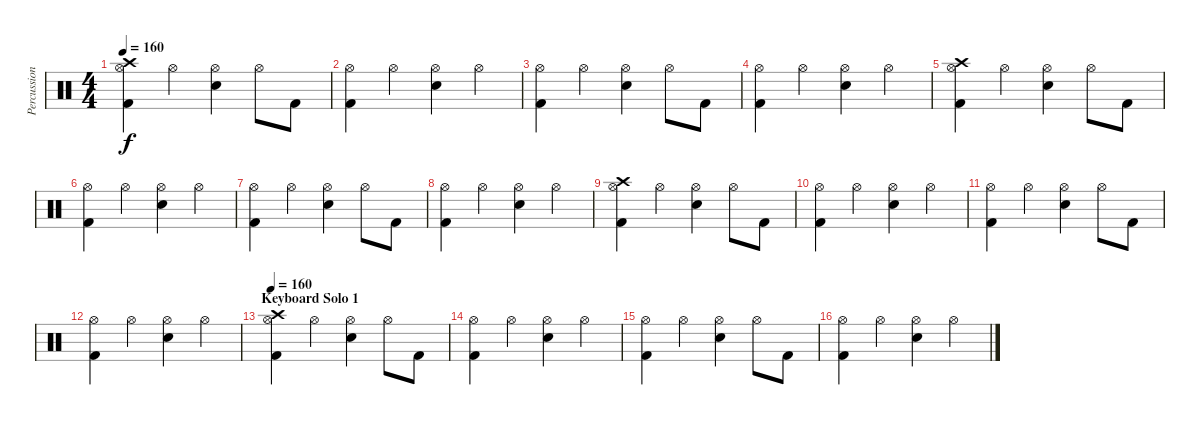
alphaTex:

\track ("Percussions" "Percussion") {instrument percussion}
\staff {score}
\articulation defaults
\ts (4 4)
\tempo 160
\clef neutral
\ks c
("Crash high (hit)" "Hi-Hat (open)" "Kick (hit) 2").4{dy f} "Hi-Hat (open)".4 ("Hi-Hat (open)" "Electric Snare (hit)").4 "Hi-Hat (open)".8 "Kick (hit) 2".8 |
("Hi-Hat (open)" "Kick (hit) 2").4 "Hi-Hat (open)".4 ("Hi-Hat (open)" "Electric Snare (hit)").4 "Hi-Hat (open)".4 |
("Hi-Hat (open)" "Kick (hit) 2").4 "Hi-Hat (open)".4 ("Hi-Hat (open)" "Electric Snare (hit)").4 "Hi-Hat (open)".8 "Kick (hit) 2".8 |
("Hi-Hat (open)" "Kick (hit) 2").4 "Hi-Hat (open)".4 ("Hi-Hat (open)" "Electric Snare (hit)").4 "Hi-Hat (open)".4 |
("Crash high (hit)" "Hi-Hat (open)" "Kick (hit) 2").4 "Hi-Hat (open)".4 ("Hi-Hat (open)" "Electric Snare (hit)").4 "Hi-Hat (open)".8 "Kick (hit) 2".8 |
("Hi-Hat (open)" "Kick (hit) 2").4 "Hi-Hat (open)".4 ("Hi-Hat (open)" "Electric Snare (hit)").4 "Hi-Hat (open)".4 |
("Hi-Hat (open)" "Kick (hit) 2").4 "Hi-Hat (open)".4 ("Hi-Hat (open)" "Electric Snare (hit)").4 "Hi-Hat (open)".8 "Kick (hit) 2".8 |
("Hi-Hat (open)" "Kick (hit) 2").4 "Hi-Hat (open)".4 ("Hi-Hat (open)" "Electric Snare (hit)").4 "Hi-Hat (open)".4 |
("Crash high (hit)" "Hi-Hat (open)" "Kick (hit) 2").4 "Hi-Hat (open)".4 ("Hi-Hat (open)" "Electric Snare (hit)").4 "Hi-Hat (open)".8 "Kick (hit) 2".8 |
("Hi-Hat (open)" "Kick (hit) 2").4 "Hi-Hat (open)".4 ("Hi-Hat (open)" "Electric Snare (hit)").4 "Hi-Hat (open)".4 |
("Hi-Hat (open)" "Kick (hit) 2").4 "Hi-Hat (open)".4 ("Hi-Hat (open)" "Electric Snare (hit)").4 "Hi-Hat (open)".8 "Kick (hit) 2".8 |
("Hi-Hat (open)" "Kick (hit) 2").4 "Hi-Hat (open)".4 ("Hi-Hat (open)" "Electric Snare (hit)").4 "Hi-Hat (open)".4 |
\section ("" "Keyboard Solo 1")
\tempo 160
("Crash high (hit)" "Hi-Hat (open)" "Kick (hit) 2").4 "Hi-Hat (open)".4 ("Hi-Hat (open)" "Electric Snare (hit)").4 "Hi-Hat (open)".8 "Kick (hit) 2".8 |
("Hi-Hat (open)" "Kick (hit) 2").4 "Hi-Hat (open)".4 ("Hi-Hat (open)" "Electric Snare (hit)").4 "Hi-Hat (open)".4 |
("Hi-Hat (open)" "Kick (hit) 2").4 "Hi-Hat (open)".4 ("Hi-Hat (open)" "Electric Snare (hit)").4 "Hi-Hat (open)".8 "Kick (hit) 2".8 |
("Hi-Hat (open)" "Kick (hit) 2").4 "Hi-Hat (open)".4 ("Hi-Hat (open)" "Electric Snare (hit)").4 "Hi-Hat (open)".4
